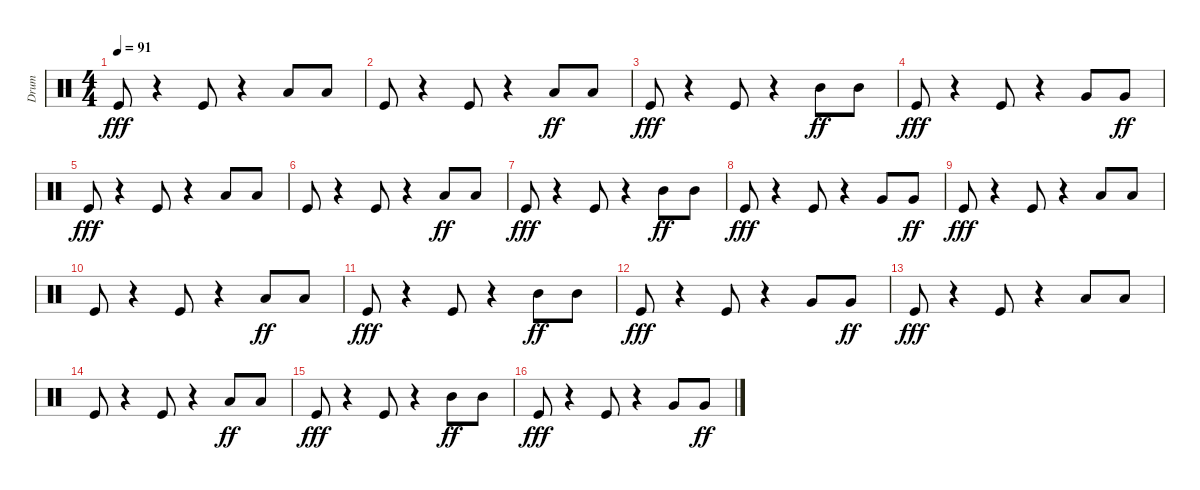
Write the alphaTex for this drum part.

\track ("Drum" "Drum") {instrument percussion}
\staff {score}
\articulation defaults
\ts (4 4)
\tempo 91
\clef neutral
\ks c "Kick (hit)".8{dy fff}
r.4 "Kick (hit)".8 r.4 "Low Floor Tom (hit)".8 "Low Floor Tom (hit)".8 |
"Kick (hit)".8 r.4 "Kick (hit)".8 r.4 "Low Tom (hit)".8{dy ff} "Low Tom (hit)".8 |
"Kick (hit)".8{dy fff} r.4 "Kick (hit)".8 r.4 "Mid Tom (hit)".8{dy ff} "Mid Tom (hit)".8 |
"Kick (hit)".8{dy fff} r.4 "Kick (hit)".8 r.4 "Very Low Tom (hit)".8 "Very Low Tom (hit)".8{dy ff} |
"Kick (hit)".8{dy fff} r.4 "Kick (hit)".8 r.4 "Low Floor Tom (hit)".8 "Low Floor Tom (hit)".8 |
"Kick (hit)".8 r.4 "Kick (hit)".8 r.4 "Low Tom (hit)".8{dy ff} "Low Tom (hit)".8 |
"Kick (hit)".8{dy fff} r.4 "Kick (hit)".8 r.4 "Mid Tom (hit)".8{dy ff} "Mid Tom (hit)".8 |
"Kick (hit)".8{dy fff} r.4 "Kick (hit)".8 r.4 "Very Low Tom (hit)".8 "Very Low Tom (hit)".8{dy ff} |
"Kick (hit)".8{dy fff} r.4 "Kick (hit)".8 r.4 "Low Floor Tom (hit)".8 "Low Floor Tom (hit)".8 |
"Kick (hit)".8 r.4 "Kick (hit)".8 r.4 "Low Tom (hit)".8{dy ff} "Low Tom (hit)".8 |
"Kick (hit)".8{dy fff} r.4 "Kick (hit)".8 r.4 "Mid Tom (hit)".8{dy ff} "Mid Tom (hit)".8 |
"Kick (hit)".8{dy fff} r.4 "Kick (hit)".8 r.4 "Very Low Tom (hit)".8 "Very Low Tom (hit)".8{dy ff} |
"Kick (hit)".8{dy fff} r.4 "Kick (hit)".8 r.4 "Low Floor Tom (hit)".8 "Low Floor Tom (hit)".8 |
"Kick (hit)".8 r.4 "Kick (hit)".8 r.4 "Low Tom (hit)".8{dy ff} "Low Tom (hit)".8 |
"Kick (hit)".8{dy fff} r.4 "Kick (hit)".8 r.4 "Mid Tom (hit)".8{dy ff} "Mid Tom (hit)".8 |
"Kick (hit)".8{dy fff} r.4 "Kick (hit)".8 r.4 "Very Low Tom (hit)".8 "Very Low Tom (hit)".8{dy ff}
